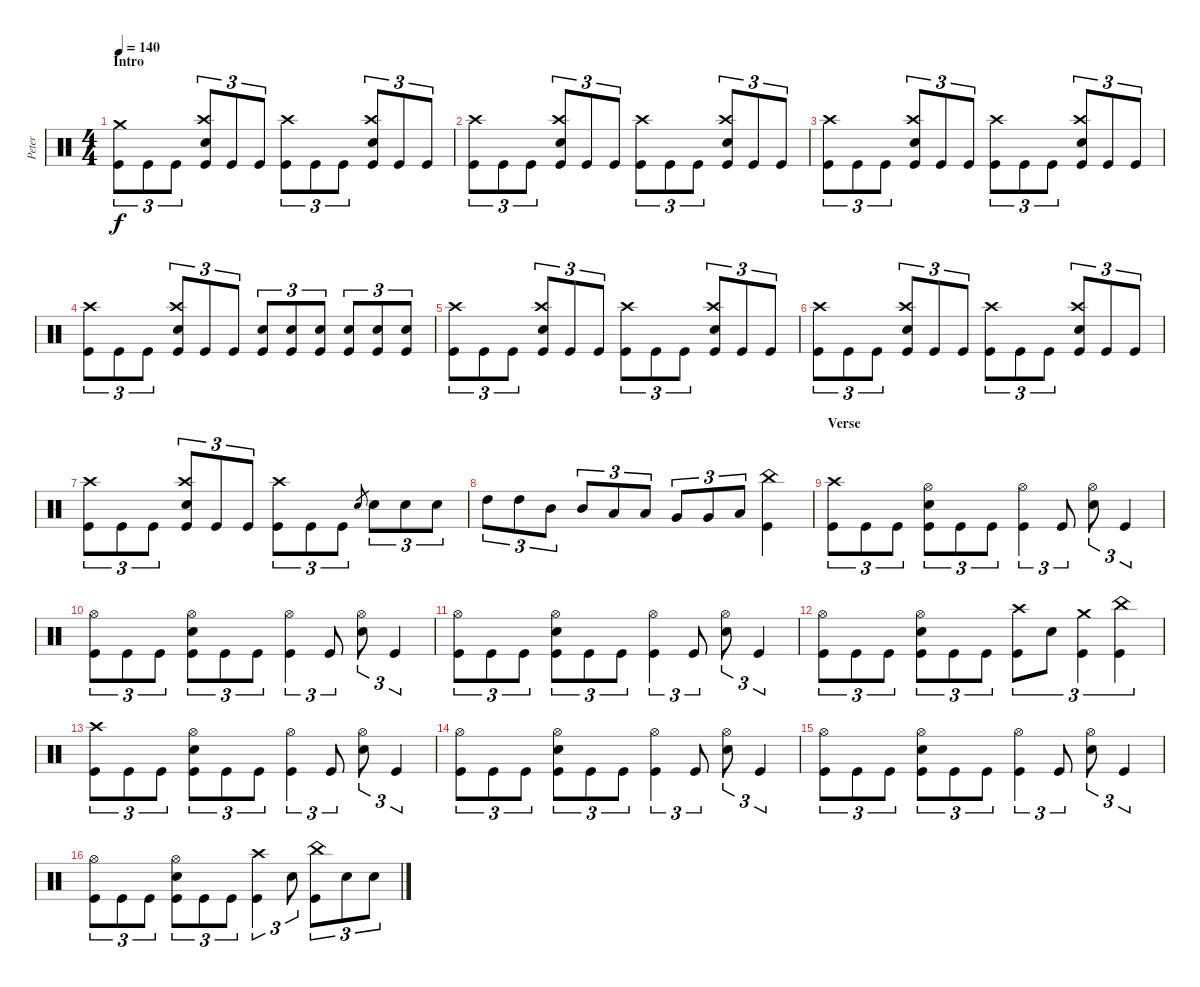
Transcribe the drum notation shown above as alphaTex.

\track ("Peter" "Peter") {instrument percussion}
\staff {score}
\articulation defaults
\ts (4 4)
\section ("" "Intro")
\tempo 140
\clef neutral
\ks c
("Crash medium (hit)" "Kick (hit)").8{tu (3 2) dy f} "Kick (hit)".8{tu (3 2)} "Kick (hit)".8{tu (3 2)} ("Crash high (hit)" "Electric Snare (hit)" "Kick (hit)").8{tu (3 2)} "Kick (hit)".8{tu (3 2)} "Kick (hit)".8{tu (3 2)} ("Crash high (hit)" "Kick (hit)").8{tu (3 2)} "Kick (hit)".8{tu (3 2)} "Kick (hit)".8{tu (3 2)} ("Crash high (hit)" "Electric Snare (hit)" "Kick (hit)").8{tu (3 2)} "Kick (hit)".8{tu (3 2)} "Kick (hit)".8{tu (3 2)} |
("Crash high (hit)" "Kick (hit)").8{tu (3 2)} "Kick (hit)".8{tu (3 2)} "Kick (hit)".8{tu (3 2)} ("Crash high (hit)" "Electric Snare (hit)" "Kick (hit)").8{tu (3 2)} "Kick (hit)".8{tu (3 2)} "Kick (hit)".8{tu (3 2)} ("Crash high (hit)" "Kick (hit)").8{tu (3 2)} "Kick (hit)".8{tu (3 2)} "Kick (hit)".8{tu (3 2)} ("Crash high (hit)" "Electric Snare (hit)" "Kick (hit)").8{tu (3 2)} "Kick (hit)".8{tu (3 2)} "Kick (hit)".8{tu (3 2)} |
("Crash high (hit)" "Kick (hit)").8{tu (3 2)} "Kick (hit)".8{tu (3 2)} "Kick (hit)".8{tu (3 2)} ("Crash high (hit)" "Electric Snare (hit)" "Kick (hit)").8{tu (3 2)} "Kick (hit)".8{tu (3 2)} "Kick (hit)".8{tu (3 2)} ("Crash high (hit)" "Kick (hit)").8{tu (3 2)} "Kick (hit)".8{tu (3 2)} "Kick (hit)".8{tu (3 2)} ("Crash high (hit)" "Electric Snare (hit)" "Kick (hit)").8{tu (3 2)} "Kick (hit)".8{tu (3 2)} "Kick (hit)".8{tu (3 2)} |
("Crash high (hit)" "Kick (hit)").8{tu (3 2)} "Kick (hit)".8{tu (3 2)} "Kick (hit)".8{tu (3 2)} ("Crash high (hit)" "Electric Snare (hit)" "Kick (hit)").8{tu (3 2)} "Kick (hit)".8{tu (3 2)} "Kick (hit)".8{tu (3 2)} ("Electric Snare (hit)" "Kick (hit)").8{tu (3 2)} ("Electric Snare (hit)" "Kick (hit)").8{tu (3 2)} ("Electric Snare (hit)" "Kick (hit)").8{tu (3 2)} ("Electric Snare (hit)" "Kick (hit)").8{tu (3 2)} ("Electric Snare (hit)" "Kick (hit)").8{tu (3 2)} ("Electric Snare (hit)" "Kick (hit)").8{tu (3 2)} |
("Crash high (hit)" "Kick (hit)").8{tu (3 2)} "Kick (hit)".8{tu (3 2)} "Kick (hit)".8{tu (3 2)} ("Crash high (hit)" "Electric Snare (hit)" "Kick (hit)").8{tu (3 2)} "Kick (hit)".8{tu (3 2)} "Kick (hit)".8{tu (3 2)} ("Crash high (hit)" "Kick (hit)").8{tu (3 2)} "Kick (hit)".8{tu (3 2)} "Kick (hit)".8{tu (3 2)} ("Crash high (hit)" "Electric Snare (hit)" "Kick (hit)").8{tu (3 2)} "Kick (hit)".8{tu (3 2)} "Kick (hit)".8{tu (3 2)} |
("Crash high (hit)" "Kick (hit)").8{tu (3 2)} "Kick (hit)".8{tu (3 2)} "Kick (hit)".8{tu (3 2)} ("Crash high (hit)" "Electric Snare (hit)" "Kick (hit)").8{tu (3 2)} "Kick (hit)".8{tu (3 2)} "Kick (hit)".8{tu (3 2)} ("Crash high (hit)" "Kick (hit)").8{tu (3 2)} "Kick (hit)".8{tu (3 2)} "Kick (hit)".8{tu (3 2)} ("Crash high (hit)" "Electric Snare (hit)" "Kick (hit)").8{tu (3 2)} "Kick (hit)".8{tu (3 2)} "Kick (hit)".8{tu (3 2)} |
("Crash high (hit)" "Kick (hit)").8{tu (3 2)} "Kick (hit)".8{tu (3 2)} "Kick (hit)".8{tu (3 2)} ("Crash high (hit)" "Electric Snare (hit)" "Kick (hit)").8{tu (3 2)} "Kick (hit)".8{tu (3 2)} "Kick (hit)".8{tu (3 2)} ("Crash high (hit)" "Kick (hit)").8{tu (3 2)} "Kick (hit)".8{tu (3 2)} "Kick (hit)".8{tu (3 2)} "Electric Snare (hit)".8{gr} "Electric Snare (hit)".8{tu (3 2)} "Electric Snare (hit)".8{tu (3 2)} "Electric Snare (hit)".8{tu (3 2)} |
"High Tom (hit)".8{tu (3 2)} "High Tom (hit)".8{tu (3 2)} "Mid Tom (hit)".8{tu (3 2)} "Mid Tom (hit)".8{tu (3 2)} "Low Tom (hit)".8{tu (3 2)} "Low Tom (hit)".8{tu (3 2)} "Very Low Tom (hit)".8{tu (3 2)} "Very Low Tom (hit)".8{tu (3 2)} "Low Floor Tom (hit)".8{tu (3 2)} ("China (hit)" "Kick (hit)").4 |
\section ("" "Verse")
("Crash high (hit)" "Kick (hit)").8{tu (3 2)} "Kick (hit)".8{tu (3 2)} "Kick (hit)".8{tu (3 2)} ("Hi-Hat (open)" "Electric Snare (hit)" "Kick (hit)").8{tu (3 2)} "Kick (hit)".8{tu (3 2)} "Kick (hit)".8{tu (3 2)} ("Hi-Hat (open)" "Kick (hit)").4{tu (3 2)} "Kick (hit)".8{tu (3 2)} ("Hi-Hat (open)" "Electric Snare (hit)").8{tu (3 2)} "Kick (hit)".4{tu (3 2)} |
("Hi-Hat (open)" "Kick (hit)").8{tu (3 2)} "Kick (hit)".8{tu (3 2)} "Kick (hit)".8{tu (3 2)} ("Hi-Hat (open)" "Electric Snare (hit)" "Kick (hit)").8{tu (3 2)} "Kick (hit)".8{tu (3 2)} "Kick (hit)".8{tu (3 2)} ("Hi-Hat (open)" "Kick (hit)").4{tu (3 2)} "Kick (hit)".8{tu (3 2)} ("Hi-Hat (open)" "Electric Snare (hit)").8{tu (3 2)} "Kick (hit)".4{tu (3 2)} |
("Hi-Hat (open)" "Kick (hit)").8{tu (3 2)} "Kick (hit)".8{tu (3 2)} "Kick (hit)".8{tu (3 2)} ("Hi-Hat (open)" "Electric Snare (hit)" "Kick (hit)").8{tu (3 2)} "Kick (hit)".8{tu (3 2)} "Kick (hit)".8{tu (3 2)} ("Hi-Hat (open)" "Kick (hit)").4{tu (3 2)} "Kick (hit)".8{tu (3 2)} ("Hi-Hat (open)" "Electric Snare (hit)").8{tu (3 2)} "Kick (hit)".4{tu (3 2)} |
("Hi-Hat (open)" "Kick (hit)").8{tu (3 2)} "Kick (hit)".8{tu (3 2)} "Kick (hit)".8{tu (3 2)} ("Hi-Hat (open)" "Electric Snare (hit)" "Kick (hit)").8{tu (3 2)} "Kick (hit)".8{tu (3 2)} "Kick (hit)".8{tu (3 2)} ("Crash high (hit)" "Kick (hit)").8{tu (3 2)} "Electric Snare (hit)".8{tu (3 2)} ("Crash medium (hit)" "Kick (hit)").4{tu (3 2)} ("China (hit)" "Kick (hit)").4{tu (3 2)} |
("Crash high (hit)" "Kick (hit)").8{tu (3 2)} "Kick (hit)".8{tu (3 2)} "Kick (hit)".8{tu (3 2)} ("Hi-Hat (open)" "Electric Snare (hit)" "Kick (hit)").8{tu (3 2)} "Kick (hit)".8{tu (3 2)} "Kick (hit)".8{tu (3 2)} ("Hi-Hat (open)" "Kick (hit)").4{tu (3 2)} "Kick (hit)".8{tu (3 2)} ("Hi-Hat (open)" "Electric Snare (hit)").8{tu (3 2)} "Kick (hit)".4{tu (3 2)} |
("Hi-Hat (open)" "Kick (hit)").8{tu (3 2)} "Kick (hit)".8{tu (3 2)} "Kick (hit)".8{tu (3 2)} ("Hi-Hat (open)" "Electric Snare (hit)" "Kick (hit)").8{tu (3 2)} "Kick (hit)".8{tu (3 2)} "Kick (hit)".8{tu (3 2)} ("Hi-Hat (open)" "Kick (hit)").4{tu (3 2)} "Kick (hit)".8{tu (3 2)} ("Hi-Hat (open)" "Electric Snare (hit)").8{tu (3 2)} "Kick (hit)".4{tu (3 2)} |
("Hi-Hat (open)" "Kick (hit)").8{tu (3 2)} "Kick (hit)".8{tu (3 2)} "Kick (hit)".8{tu (3 2)} ("Hi-Hat (open)" "Electric Snare (hit)" "Kick (hit)").8{tu (3 2)} "Kick (hit)".8{tu (3 2)} "Kick (hit)".8{tu (3 2)} ("Hi-Hat (open)" "Kick (hit)").4{tu (3 2)} "Kick (hit)".8{tu (3 2)} ("Hi-Hat (open)" "Electric Snare (hit)").8{tu (3 2)} "Kick (hit)".4{tu (3 2)} |
("Hi-Hat (open)" "Kick (hit)").8{tu (3 2)} "Kick (hit)".8{tu (3 2)} "Kick (hit)".8{tu (3 2)} ("Hi-Hat (open)" "Electric Snare (hit)" "Kick (hit)").8{tu (3 2)} "Kick (hit)".8{tu (3 2)} "Kick (hit)".8{tu (3 2)} ("Crash high (hit)" "Kick (hit)").4{tu (3 2)} "Electric Snare (hit)".8{tu (3 2)} ("China (hit)" "Kick (hit)").8{tu (3 2)} "Electric Snare (hit)".8{tu (3 2)} "Electric Snare (hit)".8{tu (3 2)}
